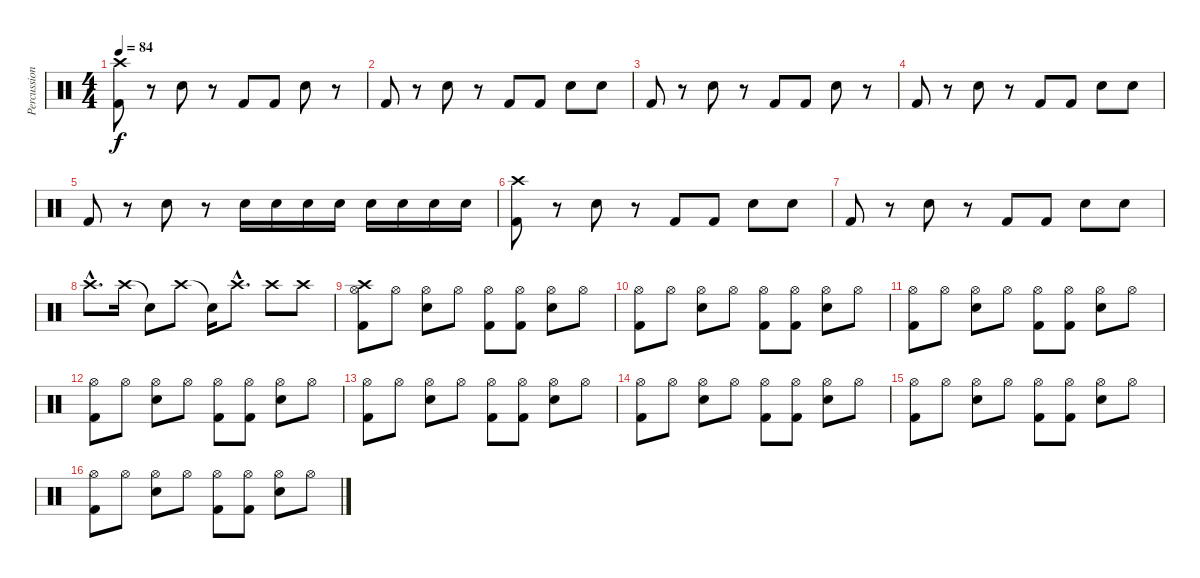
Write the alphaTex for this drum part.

\track ("Percussion" "Percussion") {instrument percussion}
\staff {score}
\articulation defaults
\ts (4 4)
\tempo 84
\clef neutral
\ks c
("Crash high (hit)" "Kick (hit) 2").8{dy f} r.8 "Electric Snare (hit)".8 r.8 "Kick (hit) 2".8 "Kick (hit) 2".8 "Electric Snare (hit)".8 r.8 |
"Kick (hit) 2".8 r.8 "Electric Snare (hit)".8 r.8 "Kick (hit) 2".8 "Kick (hit) 2".8 "Electric Snare (hit)".8 "Electric Snare (hit)".8 |
"Kick (hit) 2".8 r.8 "Electric Snare (hit)".8 r.8 "Kick (hit) 2".8 "Kick (hit) 2".8 "Electric Snare (hit)".8 r.8 |
"Kick (hit) 2".8 r.8 "Electric Snare (hit)".8 r.8 "Kick (hit) 2".8 "Kick (hit) 2".8 "Electric Snare (hit)".8 "Electric Snare (hit)".8 |
"Kick (hit) 2".8 r.8 "Electric Snare (hit)".8 r.8 "Electric Snare (hit)".16 "Electric Snare (hit)".16 "Electric Snare (hit)".16 "Electric Snare (hit)".16 "Electric Snare (hit)".16 "Electric Snare (hit)".16 "Electric Snare (hit)".16 "Electric Snare (hit)".16 |
("Crash high (hit)" "Kick (hit) 2").8 r.8 "Electric Snare (hit)".8 r.8 "Kick (hit) 2".8 "Kick (hit) 2".8 "Electric Snare (hit)".8 "Electric Snare (hit)".8 |
"Kick (hit) 2".8 r.8 "Electric Snare (hit)".8 r.8 "Kick (hit) 2".8 "Kick (hit) 2".8 "Electric Snare (hit)".8 "Electric Snare (hit)".8 |
"Crash high (hit)"{hac}.8{d} "Crash high (hit)".16 "Snare (hit)"{t}.8 "Crash high (hit)".8 "Snare (hit)"{t}.16 "Crash high (hit)"{hac}.8{d} "Crash high (hit)".8 "Crash high (hit)".8 |
("Crash high (hit)" "Kick (hit) 2" "Hi-Hat (open)").8 "Hi-Hat (open)".8 ("Electric Snare (hit)" "Hi-Hat (open)").8 "Hi-Hat (open)".8 ("Kick (hit) 2" "Hi-Hat (open)").8 ("Kick (hit) 2" "Hi-Hat (open)").8 ("Electric Snare (hit)" "Hi-Hat (open)").8 "Hi-Hat (open)".8 |
("Kick (hit) 2" "Hi-Hat (open)").8 "Hi-Hat (open)".8 ("Electric Snare (hit)" "Hi-Hat (open)").8 "Hi-Hat (open)".8 ("Kick (hit) 2" "Hi-Hat (open)").8 ("Kick (hit) 2" "Hi-Hat (open)").8 ("Electric Snare (hit)" "Hi-Hat (open)").8 "Hi-Hat (open)".8 |
("Kick (hit) 2" "Hi-Hat (open)").8 "Hi-Hat (open)".8 ("Electric Snare (hit)" "Hi-Hat (open)").8 "Hi-Hat (open)".8 ("Kick (hit) 2" "Hi-Hat (open)").8 ("Kick (hit) 2" "Hi-Hat (open)").8 ("Electric Snare (hit)" "Hi-Hat (open)").8 "Hi-Hat (open)".8 |
("Kick (hit) 2" "Hi-Hat (open)").8 "Hi-Hat (open)".8 ("Electric Snare (hit)" "Hi-Hat (open)").8 "Hi-Hat (open)".8 ("Kick (hit) 2" "Hi-Hat (open)").8 ("Kick (hit) 2" "Hi-Hat (open)").8 ("Electric Snare (hit)" "Hi-Hat (open)").8 "Hi-Hat (open)".8 |
("Kick (hit) 2" "Hi-Hat (open)").8 "Hi-Hat (open)".8 ("Electric Snare (hit)" "Hi-Hat (open)").8 "Hi-Hat (open)".8 ("Kick (hit) 2" "Hi-Hat (open)").8 ("Kick (hit) 2" "Hi-Hat (open)").8 ("Electric Snare (hit)" "Hi-Hat (open)").8 "Hi-Hat (open)".8 |
("Kick (hit) 2" "Hi-Hat (open)").8 "Hi-Hat (open)".8 ("Electric Snare (hit)" "Hi-Hat (open)").8 "Hi-Hat (open)".8 ("Kick (hit) 2" "Hi-Hat (open)").8 ("Kick (hit) 2" "Hi-Hat (open)").8 ("Electric Snare (hit)" "Hi-Hat (open)").8 "Hi-Hat (open)".8 |
("Kick (hit) 2" "Hi-Hat (open)").8 "Hi-Hat (open)".8 ("Electric Snare (hit)" "Hi-Hat (open)").8 "Hi-Hat (open)".8 ("Kick (hit) 2" "Hi-Hat (open)").8 ("Kick (hit) 2" "Hi-Hat (open)").8 ("Electric Snare (hit)" "Hi-Hat (open)").8 "Hi-Hat (open)".8 |
("Kick (hit) 2" "Hi-Hat (open)").8 "Hi-Hat (open)".8 ("Electric Snare (hit)" "Hi-Hat (open)").8 "Hi-Hat (open)".8 ("Kick (hit) 2" "Hi-Hat (open)").8 ("Kick (hit) 2" "Hi-Hat (open)").8 ("Electric Snare (hit)" "Hi-Hat (open)").8 "Hi-Hat (open)".8
